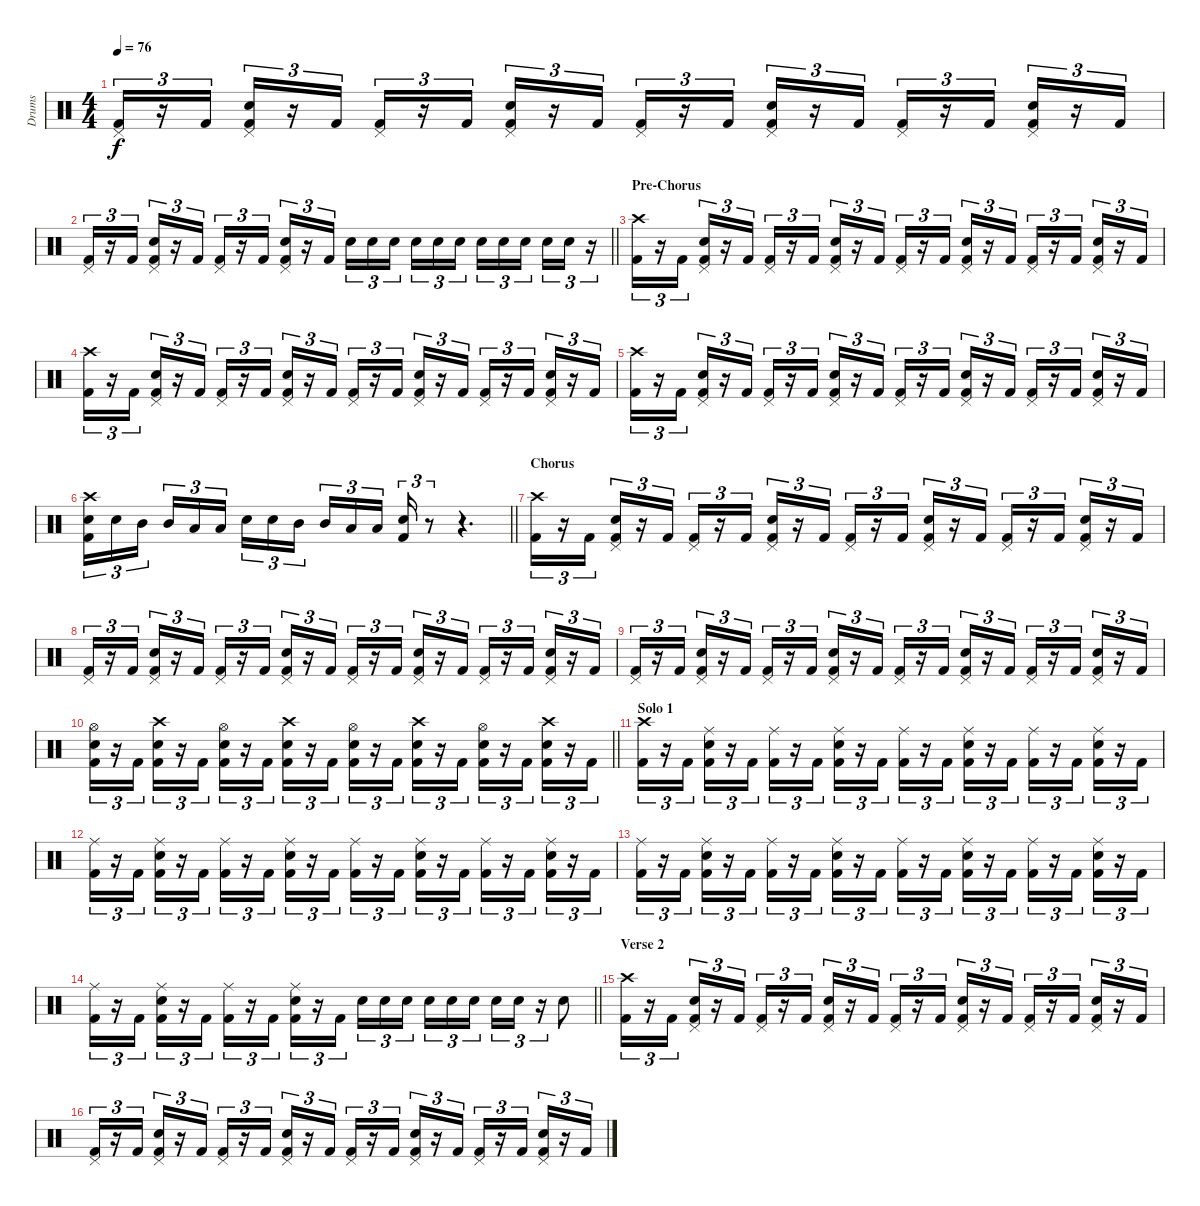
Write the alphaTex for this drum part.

\track ("Drums" "Drums") {instrument percussion}
\staff {score}
\articulation defaults
\ts (4 4)
\tempo 76
\clef neutral
\ks c
("Pedal Hi-Hat (hit)" "Kick (hit) 2").16{tu (3 2) dy f} r.16{tu (3 2)} "Kick (hit) 2".16{tu (3 2)} ("Pedal Hi-Hat (hit)" "Snare (hit) 2" "Kick (hit) 2").16{tu (3 2)} r.16{tu (3 2)} "Kick (hit) 2".16{tu (3 2)} ("Pedal Hi-Hat (hit)" "Kick (hit) 2").16{tu (3 2)} r.16{tu (3 2)} "Kick (hit) 2".16{tu (3 2)} ("Pedal Hi-Hat (hit)" "Snare (hit) 2" "Kick (hit) 2").16{tu (3 2)} r.16{tu (3 2)} "Kick (hit) 2".16{tu (3 2)} ("Pedal Hi-Hat (hit)" "Kick (hit) 2").16{tu (3 2)} r.16{tu (3 2)} "Kick (hit) 2".16{tu (3 2)} ("Pedal Hi-Hat (hit)" "Snare (hit) 2" "Kick (hit) 2").16{tu (3 2)} r.16{tu (3 2)} "Kick (hit) 2".16{tu (3 2)} ("Pedal Hi-Hat (hit)" "Kick (hit) 2").16{tu (3 2)} r.16{tu (3 2)} "Kick (hit) 2".16{tu (3 2)} ("Pedal Hi-Hat (hit)" "Snare (hit) 2" "Kick (hit) 2").16{tu (3 2)} r.16{tu (3 2)} "Kick (hit) 2".16{tu (3 2)} |
\barLineRight lightlight
("Pedal Hi-Hat (hit)" "Kick (hit) 2").16{tu (3 2)} r.16{tu (3 2)} "Kick (hit) 2".16{tu (3 2)} ("Pedal Hi-Hat (hit)" "Snare (hit) 2" "Kick (hit) 2").16{tu (3 2)} r.16{tu (3 2)} "Kick (hit) 2".16{tu (3 2)} ("Pedal Hi-Hat (hit)" "Kick (hit) 2").16{tu (3 2)} r.16{tu (3 2)} "Kick (hit) 2".16{tu (3 2)} ("Pedal Hi-Hat (hit)" "Snare (hit) 2" "Kick (hit) 2").16{tu (3 2)} r.16{tu (3 2)} "Kick (hit) 2".16{tu (3 2)} "Snare (hit) 2".16{tu (3 2)} "Snare (hit) 2".16{tu (3 2)} "Snare (hit) 2".16{tu (3 2) beam splitsecondary} "Snare (hit) 2".16{tu (3 2)} "Snare (hit) 2".16{tu (3 2)} "Snare (hit) 2".16{tu (3 2)} "Snare (hit) 2".16{tu (3 2)} "Snare (hit) 2".16{tu (3 2)} "Snare (hit) 2".16{tu (3 2) beam splitsecondary} "Snare (hit) 2".16{tu (3 2)} "Snare (hit) 2".16{tu (3 2)} r.16{tu (3 2)} |
\section ("" "Pre-Chorus")
("Crash high (hit)" "Kick (hit) 2").16{tu (3 2)} r.16{tu (3 2)} "Kick (hit) 2".16{tu (3 2)} ("Pedal Hi-Hat (hit)" "Snare (hit) 2" "Kick (hit) 2").16{tu (3 2)} r.16{tu (3 2)} "Kick (hit) 2".16{tu (3 2)} ("Pedal Hi-Hat (hit)" "Kick (hit) 2").16{tu (3 2)} r.16{tu (3 2)} "Kick (hit) 2".16{tu (3 2)} ("Pedal Hi-Hat (hit)" "Snare (hit) 2" "Kick (hit) 2").16{tu (3 2)} r.16{tu (3 2)} "Kick (hit) 2".16{tu (3 2)} ("Pedal Hi-Hat (hit)" "Kick (hit) 2").16{tu (3 2)} r.16{tu (3 2)} "Kick (hit) 2".16{tu (3 2)} ("Pedal Hi-Hat (hit)" "Snare (hit) 2" "Kick (hit) 2").16{tu (3 2)} r.16{tu (3 2)} "Kick (hit) 2".16{tu (3 2)} ("Pedal Hi-Hat (hit)" "Kick (hit) 2").16{tu (3 2)} r.16{tu (3 2)} "Kick (hit) 2".16{tu (3 2)} ("Pedal Hi-Hat (hit)" "Snare (hit) 2" "Kick (hit) 2").16{tu (3 2)} r.16{tu (3 2)} "Kick (hit) 2".16{tu (3 2)} |
("Crash high (hit)" "Kick (hit) 2").16{tu (3 2)} r.16{tu (3 2)} "Kick (hit) 2".16{tu (3 2)} ("Pedal Hi-Hat (hit)" "Snare (hit) 2" "Kick (hit) 2").16{tu (3 2)} r.16{tu (3 2)} "Kick (hit) 2".16{tu (3 2)} ("Pedal Hi-Hat (hit)" "Kick (hit) 2").16{tu (3 2)} r.16{tu (3 2)} "Kick (hit) 2".16{tu (3 2)} ("Pedal Hi-Hat (hit)" "Snare (hit) 2" "Kick (hit) 2").16{tu (3 2)} r.16{tu (3 2)} "Kick (hit) 2".16{tu (3 2)} ("Pedal Hi-Hat (hit)" "Kick (hit) 2").16{tu (3 2)} r.16{tu (3 2)} "Kick (hit) 2".16{tu (3 2)} ("Pedal Hi-Hat (hit)" "Snare (hit) 2" "Kick (hit) 2").16{tu (3 2)} r.16{tu (3 2)} "Kick (hit) 2".16{tu (3 2)} ("Pedal Hi-Hat (hit)" "Kick (hit) 2").16{tu (3 2)} r.16{tu (3 2)} "Kick (hit) 2".16{tu (3 2)} ("Pedal Hi-Hat (hit)" "Snare (hit) 2" "Kick (hit) 2").16{tu (3 2)} r.16{tu (3 2)} "Kick (hit) 2".16{tu (3 2)} |
("Crash high (hit)" "Kick (hit) 2").16{tu (3 2)} r.16{tu (3 2)} "Kick (hit) 2".16{tu (3 2)} ("Pedal Hi-Hat (hit)" "Snare (hit) 2" "Kick (hit) 2").16{tu (3 2)} r.16{tu (3 2)} "Kick (hit) 2".16{tu (3 2)} ("Pedal Hi-Hat (hit)" "Kick (hit) 2").16{tu (3 2)} r.16{tu (3 2)} "Kick (hit) 2".16{tu (3 2)} ("Pedal Hi-Hat (hit)" "Snare (hit) 2" "Kick (hit) 2").16{tu (3 2)} r.16{tu (3 2)} "Kick (hit) 2".16{tu (3 2)} ("Pedal Hi-Hat (hit)" "Kick (hit) 2").16{tu (3 2)} r.16{tu (3 2)} "Kick (hit) 2".16{tu (3 2)} ("Pedal Hi-Hat (hit)" "Snare (hit) 2" "Kick (hit) 2").16{tu (3 2)} r.16{tu (3 2)} "Kick (hit) 2".16{tu (3 2)} ("Pedal Hi-Hat (hit)" "Kick (hit) 2").16{tu (3 2)} r.16{tu (3 2)} "Kick (hit) 2".16{tu (3 2)} ("Pedal Hi-Hat (hit)" "Snare (hit) 2" "Kick (hit) 2").16{tu (3 2)} r.16{tu (3 2)} "Kick (hit) 2".16{tu (3 2)} |
\barLineRight lightlight
("Crash high (hit)" "Snare (hit) 2" "Kick (hit) 2").16{tu (3 2)} "Snare (hit) 2".16{tu (3 2)} "Mid Tom (hit)".16{tu (3 2) beam splitsecondary} "Mid Tom (hit)".16{tu (3 2)} "Low Tom (hit)".16{tu (3 2)} "Low Tom (hit)".16{tu (3 2)} "Snare (hit) 2".16{tu (3 2)} "Snare (hit) 2".16{tu (3 2)} "Mid Tom (hit)".16{tu (3 2) beam splitsecondary} "Mid Tom (hit)".16{tu (3 2)} "Low Tom (hit)".16{tu (3 2)} "Low Tom (hit)".16{tu (3 2)} ("Snare (hit) 2" "Kick (hit) 2").16{tu (3 2)} r.8{tu (3 2)} r.4{d} |
\section ("" "Chorus")
("Crash high (hit)" "Kick (hit) 2").16{tu (3 2)} r.16{tu (3 2)} "Kick (hit) 2".16{tu (3 2)} ("Pedal Hi-Hat (hit)" "Snare (hit) 2" "Kick (hit) 2").16{tu (3 2)} r.16{tu (3 2)} "Kick (hit) 2".16{tu (3 2)} ("Pedal Hi-Hat (hit)" "Kick (hit) 2").16{tu (3 2)} r.16{tu (3 2)} "Kick (hit) 2".16{tu (3 2)} ("Pedal Hi-Hat (hit)" "Snare (hit) 2" "Kick (hit) 2").16{tu (3 2)} r.16{tu (3 2)} "Kick (hit) 2".16{tu (3 2)} ("Pedal Hi-Hat (hit)" "Kick (hit) 2").16{tu (3 2)} r.16{tu (3 2)} "Kick (hit) 2".16{tu (3 2)} ("Pedal Hi-Hat (hit)" "Snare (hit) 2" "Kick (hit) 2").16{tu (3 2)} r.16{tu (3 2)} "Kick (hit) 2".16{tu (3 2)} ("Pedal Hi-Hat (hit)" "Kick (hit) 2").16{tu (3 2)} r.16{tu (3 2)} "Kick (hit) 2".16{tu (3 2)} ("Pedal Hi-Hat (hit)" "Snare (hit) 2" "Kick (hit) 2").16{tu (3 2)} r.16{tu (3 2)} "Kick (hit) 2".16{tu (3 2)} |
("Pedal Hi-Hat (hit)" "Kick (hit) 2").16{tu (3 2)} r.16{tu (3 2)} "Kick (hit) 2".16{tu (3 2)} ("Pedal Hi-Hat (hit)" "Snare (hit) 2" "Kick (hit) 2").16{tu (3 2)} r.16{tu (3 2)} "Kick (hit) 2".16{tu (3 2)} ("Pedal Hi-Hat (hit)" "Kick (hit) 2").16{tu (3 2)} r.16{tu (3 2)} "Kick (hit) 2".16{tu (3 2)} ("Pedal Hi-Hat (hit)" "Snare (hit) 2" "Kick (hit) 2").16{tu (3 2)} r.16{tu (3 2)} "Kick (hit) 2".16{tu (3 2)} ("Pedal Hi-Hat (hit)" "Kick (hit) 2").16{tu (3 2)} r.16{tu (3 2)} "Kick (hit) 2".16{tu (3 2)} ("Pedal Hi-Hat (hit)" "Snare (hit) 2" "Kick (hit) 2").16{tu (3 2)} r.16{tu (3 2)} "Kick (hit) 2".16{tu (3 2)} ("Pedal Hi-Hat (hit)" "Kick (hit) 2").16{tu (3 2)} r.16{tu (3 2)} "Kick (hit) 2".16{tu (3 2)} ("Pedal Hi-Hat (hit)" "Snare (hit) 2" "Kick (hit) 2").16{tu (3 2)} r.16{tu (3 2)} "Kick (hit) 2".16{tu (3 2)} |
("Pedal Hi-Hat (hit)" "Kick (hit) 2").16{tu (3 2)} r.16{tu (3 2)} "Kick (hit) 2".16{tu (3 2)} ("Pedal Hi-Hat (hit)" "Snare (hit) 2" "Kick (hit) 2").16{tu (3 2)} r.16{tu (3 2)} "Kick (hit) 2".16{tu (3 2)} ("Pedal Hi-Hat (hit)" "Kick (hit) 2").16{tu (3 2)} r.16{tu (3 2)} "Kick (hit) 2".16{tu (3 2)} ("Pedal Hi-Hat (hit)" "Snare (hit) 2" "Kick (hit) 2").16{tu (3 2)} r.16{tu (3 2)} "Kick (hit) 2".16{tu (3 2)} ("Pedal Hi-Hat (hit)" "Kick (hit) 2").16{tu (3 2)} r.16{tu (3 2)} "Kick (hit) 2".16{tu (3 2)} ("Pedal Hi-Hat (hit)" "Snare (hit) 2" "Kick (hit) 2").16{tu (3 2)} r.16{tu (3 2)} "Kick (hit) 2".16{tu (3 2)} ("Pedal Hi-Hat (hit)" "Kick (hit) 2").16{tu (3 2)} r.16{tu (3 2)} "Kick (hit) 2".16{tu (3 2)} ("Pedal Hi-Hat (hit)" "Snare (hit) 2" "Kick (hit) 2").16{tu (3 2)} r.16{tu (3 2)} "Kick (hit) 2".16{tu (3 2)} |
\barLineRight lightlight
("Hi-Hat (open)" "Snare (hit) 2" "Kick (hit) 2").16{tu (3 2)} r.16{tu (3 2)} "Kick (hit) 2".16{tu (3 2)} ("Crash high (hit)" "Snare (hit) 2" "Kick (hit) 2").16{tu (3 2)} r.16{tu (3 2)} "Kick (hit) 2".16{tu (3 2)} ("Hi-Hat (open)" "Snare (hit) 2" "Kick (hit) 2").16{tu (3 2)} r.16{tu (3 2)} "Kick (hit) 2".16{tu (3 2)} ("Crash high (hit)" "Snare (hit) 2" "Kick (hit) 2").16{tu (3 2)} r.16{tu (3 2)} "Kick (hit) 2".16{tu (3 2)} ("Hi-Hat (open)" "Snare (hit) 2" "Kick (hit) 2").16{tu (3 2)} r.16{tu (3 2)} "Kick (hit) 2".16{tu (3 2)} ("Crash high (hit)" "Snare (hit) 2" "Kick (hit) 2").16{tu (3 2)} r.16{tu (3 2)} "Kick (hit) 2".16{tu (3 2)} ("Hi-Hat (open)" "Snare (hit) 2" "Kick (hit) 2").16{tu (3 2)} r.16{tu (3 2)} "Kick (hit) 2".16{tu (3 2)} ("Crash high (hit)" "Snare (hit) 2" "Kick (hit) 2").16{tu (3 2)} r.16{tu (3 2)} "Kick (hit) 2".16{tu (3 2)} |
\section ("" "Solo 1")
("Crash high (hit)" "Kick (hit) 2").16{tu (3 2)} r.16{tu (3 2)} "Kick (hit) 2".16{tu (3 2)} ("Ride (middle)" "Snare (hit) 2" "Kick (hit) 2").16{tu (3 2)} r.16{tu (3 2)} "Kick (hit) 2".16{tu (3 2)} ("Ride (middle)" "Kick (hit) 2").16{tu (3 2)} r.16{tu (3 2)} "Kick (hit) 2".16{tu (3 2)} ("Ride (middle)" "Snare (hit) 2" "Kick (hit) 2").16{tu (3 2)} r.16{tu (3 2)} "Kick (hit) 2".16{tu (3 2)} ("Ride (middle)" "Kick (hit) 2").16{tu (3 2)} r.16{tu (3 2)} "Kick (hit) 2".16{tu (3 2)} ("Ride (middle)" "Snare (hit) 2" "Kick (hit) 2").16{tu (3 2)} r.16{tu (3 2)} "Kick (hit) 2".16{tu (3 2)} ("Ride (middle)" "Kick (hit) 2").16{tu (3 2)} r.16{tu (3 2)} "Kick (hit) 2".16{tu (3 2)} ("Ride (middle)" "Snare (hit) 2" "Kick (hit) 2").16{tu (3 2)} r.16{tu (3 2)} "Kick (hit) 2".16{tu (3 2)} |
("Ride (middle)" "Kick (hit) 2").16{tu (3 2)} r.16{tu (3 2)} "Kick (hit) 2".16{tu (3 2)} ("Ride (middle)" "Snare (hit) 2" "Kick (hit) 2").16{tu (3 2)} r.16{tu (3 2)} "Kick (hit) 2".16{tu (3 2)} ("Ride (middle)" "Kick (hit) 2").16{tu (3 2)} r.16{tu (3 2)} "Kick (hit) 2".16{tu (3 2)} ("Ride (middle)" "Snare (hit) 2" "Kick (hit) 2").16{tu (3 2)} r.16{tu (3 2)} "Kick (hit) 2".16{tu (3 2)} ("Ride (middle)" "Kick (hit) 2").16{tu (3 2)} r.16{tu (3 2)} "Kick (hit) 2".16{tu (3 2)} ("Ride (middle)" "Snare (hit) 2" "Kick (hit) 2").16{tu (3 2)} r.16{tu (3 2)} "Kick (hit) 2".16{tu (3 2)} ("Ride (middle)" "Kick (hit) 2").16{tu (3 2)} r.16{tu (3 2)} "Kick (hit) 2".16{tu (3 2)} ("Ride (middle)" "Snare (hit) 2" "Kick (hit) 2").16{tu (3 2)} r.16{tu (3 2)} "Kick (hit) 2".16{tu (3 2)} |
("Ride (middle)" "Kick (hit) 2").16{tu (3 2)} r.16{tu (3 2)} "Kick (hit) 2".16{tu (3 2)} ("Ride (middle)" "Snare (hit) 2" "Kick (hit) 2").16{tu (3 2)} r.16{tu (3 2)} "Kick (hit) 2".16{tu (3 2)} ("Ride (middle)" "Kick (hit) 2").16{tu (3 2)} r.16{tu (3 2)} "Kick (hit) 2".16{tu (3 2)} ("Ride (middle)" "Snare (hit) 2" "Kick (hit) 2").16{tu (3 2)} r.16{tu (3 2)} "Kick (hit) 2".16{tu (3 2)} ("Ride (middle)" "Kick (hit) 2").16{tu (3 2)} r.16{tu (3 2)} "Kick (hit) 2".16{tu (3 2)} ("Ride (middle)" "Snare (hit) 2" "Kick (hit) 2").16{tu (3 2)} r.16{tu (3 2)} "Kick (hit) 2".16{tu (3 2)} ("Ride (middle)" "Kick (hit) 2").16{tu (3 2)} r.16{tu (3 2)} "Kick (hit) 2".16{tu (3 2)} ("Ride (middle)" "Snare (hit) 2" "Kick (hit) 2").16{tu (3 2)} r.16{tu (3 2)} "Kick (hit) 2".16{tu (3 2)} |
\barLineRight lightlight
("Ride (middle)" "Kick (hit) 2").16{tu (3 2)} r.16{tu (3 2)} "Kick (hit) 2".16{tu (3 2)} ("Ride (middle)" "Snare (hit) 2" "Kick (hit) 2").16{tu (3 2)} r.16{tu (3 2)} "Kick (hit) 2".16{tu (3 2)} ("Ride (middle)" "Kick (hit) 2").16{tu (3 2)} r.16{tu (3 2)} "Kick (hit) 2".16{tu (3 2)} ("Ride (middle)" "Snare (hit) 2" "Kick (hit) 2").16{tu (3 2)} r.16{tu (3 2)} "Kick (hit) 2".16{tu (3 2)} "Snare (hit) 2".16{tu (3 2)} "Snare (hit) 2".16{tu (3 2)} "Snare (hit) 2".16{tu (3 2) beam splitsecondary} "Snare (hit) 2".16{tu (3 2)} "Snare (hit) 2".16{tu (3 2)} "Snare (hit) 2".16{tu (3 2)} "Snare (hit) 2".16{tu (3 2)} "Snare (hit) 2".16{tu (3 2)} r.16{tu (3 2)} "Snare (hit) 2".8 |
\section ("" "Verse 2")
("Crash high (hit)" "Kick (hit) 2").16{tu (3 2)} r.16{tu (3 2)} "Kick (hit) 2".16{tu (3 2)} ("Pedal Hi-Hat (hit)" "Snare (hit) 2" "Kick (hit) 2").16{tu (3 2)} r.16{tu (3 2)} "Kick (hit) 2".16{tu (3 2)} ("Pedal Hi-Hat (hit)" "Kick (hit) 2").16{tu (3 2)} r.16{tu (3 2)} "Kick (hit) 2".16{tu (3 2)} ("Pedal Hi-Hat (hit)" "Snare (hit) 2" "Kick (hit) 2").16{tu (3 2)} r.16{tu (3 2)} "Kick (hit) 2".16{tu (3 2)} ("Pedal Hi-Hat (hit)" "Kick (hit) 2").16{tu (3 2)} r.16{tu (3 2)} "Kick (hit) 2".16{tu (3 2)} ("Pedal Hi-Hat (hit)" "Snare (hit) 2" "Kick (hit) 2").16{tu (3 2)} r.16{tu (3 2)} "Kick (hit) 2".16{tu (3 2)} ("Pedal Hi-Hat (hit)" "Kick (hit) 2").16{tu (3 2)} r.16{tu (3 2)} "Kick (hit) 2".16{tu (3 2)} ("Pedal Hi-Hat (hit)" "Snare (hit) 2" "Kick (hit) 2").16{tu (3 2)} r.16{tu (3 2)} "Kick (hit) 2".16{tu (3 2)} |
("Pedal Hi-Hat (hit)" "Kick (hit) 2").16{tu (3 2)} r.16{tu (3 2)} "Kick (hit) 2".16{tu (3 2)} ("Pedal Hi-Hat (hit)" "Snare (hit) 2" "Kick (hit) 2").16{tu (3 2)} r.16{tu (3 2)} "Kick (hit) 2".16{tu (3 2)} ("Pedal Hi-Hat (hit)" "Kick (hit) 2").16{tu (3 2)} r.16{tu (3 2)} "Kick (hit) 2".16{tu (3 2)} ("Pedal Hi-Hat (hit)" "Snare (hit) 2" "Kick (hit) 2").16{tu (3 2)} r.16{tu (3 2)} "Kick (hit) 2".16{tu (3 2)} ("Pedal Hi-Hat (hit)" "Kick (hit) 2").16{tu (3 2)} r.16{tu (3 2)} "Kick (hit) 2".16{tu (3 2)} ("Pedal Hi-Hat (hit)" "Snare (hit) 2" "Kick (hit) 2").16{tu (3 2)} r.16{tu (3 2)} "Kick (hit) 2".16{tu (3 2)} ("Pedal Hi-Hat (hit)" "Kick (hit) 2").16{tu (3 2)} r.16{tu (3 2)} "Kick (hit) 2".16{tu (3 2)} ("Pedal Hi-Hat (hit)" "Snare (hit) 2" "Kick (hit) 2").16{tu (3 2)} r.16{tu (3 2)} "Kick (hit) 2".16{tu (3 2)}
